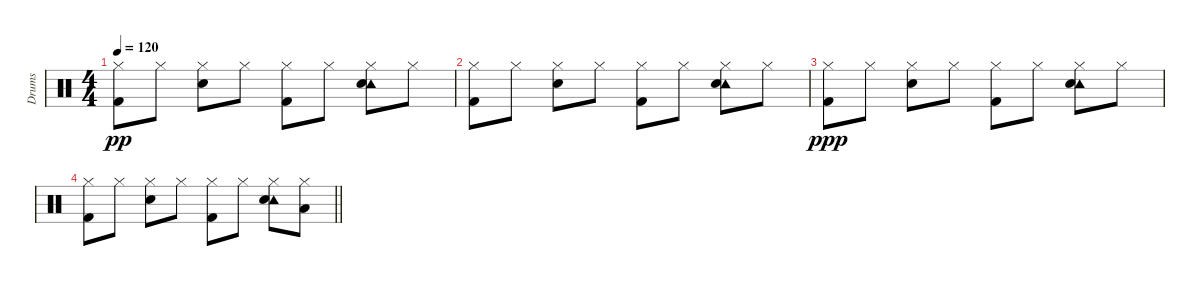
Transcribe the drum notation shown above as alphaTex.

\track ("Drums" "Drums") {instrument percussion}
\staff {score}
\articulation defaults
\ts (4 4)
\tempo 120
\clef neutral
\ks c
("Hi-Hat (closed)" "Kick (hit) 2").8{dy pp} "Hi-Hat (closed)".8 ("Hi-Hat (closed)" "Electric Snare (hit)").8 "Hi-Hat (closed)".8 ("Hi-Hat (closed)" "Kick (hit) 2").8 "Hi-Hat (closed)".8 ("Hi-Hat (closed)" "Tambourine (hit)" "Electric Snare (hit)").8 "Hi-Hat (closed)".8 |
("Hi-Hat (closed)" "Kick (hit) 2").8 "Hi-Hat (closed)".8 ("Hi-Hat (closed)" "Electric Snare (hit)").8 "Hi-Hat (closed)".8 ("Hi-Hat (closed)" "Kick (hit) 2").8 "Hi-Hat (closed)".8 ("Hi-Hat (closed)" "Tambourine (hit)" "Electric Snare (hit)").8 "Hi-Hat (closed)".8 |
("Hi-Hat (closed)" "Kick (hit) 2").8{dy ppp} "Hi-Hat (closed)".8 ("Hi-Hat (closed)" "Electric Snare (hit)").8 "Hi-Hat (closed)".8 ("Hi-Hat (closed)" "Kick (hit) 2").8 "Hi-Hat (closed)".8 ("Hi-Hat (closed)" "Tambourine (hit)" "Electric Snare (hit)").8 "Hi-Hat (closed)".8 |
\barLineRight lightlight
("Hi-Hat (closed)" "Kick (hit) 2").8 "Hi-Hat (closed)".8 ("Hi-Hat (closed)" "Electric Snare (hit)").8 "Hi-Hat (closed)".8 ("Hi-Hat (closed)" "Kick (hit) 2").8 "Hi-Hat (closed)".8 ("Hi-Hat (closed)" "Tambourine (hit)" "Electric Snare (hit)").8 ("Hi-Hat (closed)" "Low Tom (hit)").8
